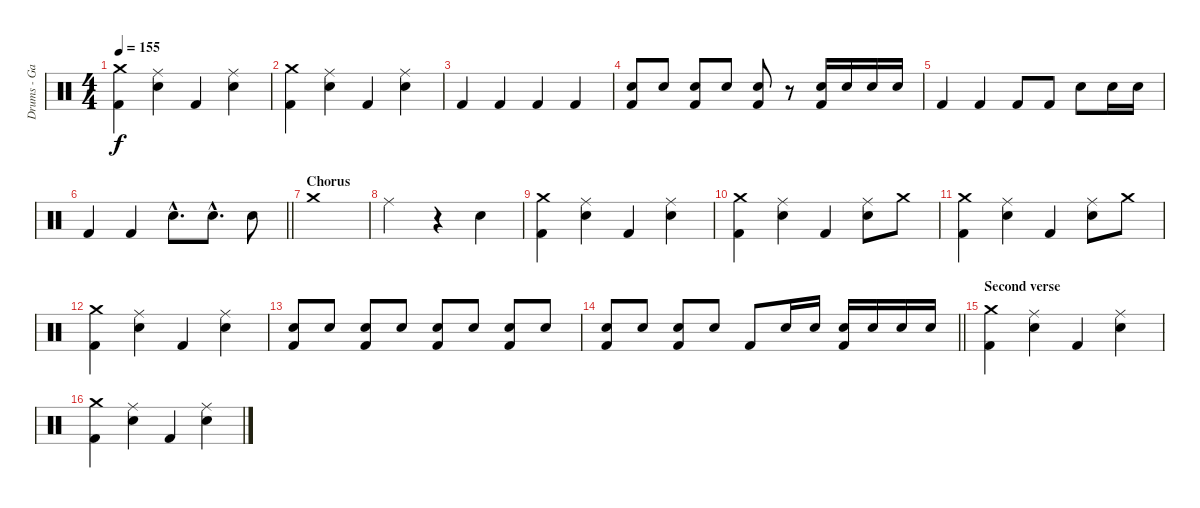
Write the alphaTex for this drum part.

\track ("Drums - Gary" "Drums - Ga") {instrument percussion}
\staff {score}
\articulation defaults
\ts (4 4)
\tempo 155
\clef neutral
\ks c
("Crash medium (hit)" "Kick (hit) 2").4{dy f} ("Snare (hit) 2" "Ride (middle)").4 "Kick (hit) 2".4 ("Snare (hit) 2" "Ride (middle)").4 |
("Crash medium (hit)" "Kick (hit) 2").4 ("Snare (hit) 2" "Ride (middle)").4 "Kick (hit) 2".4 ("Snare (hit) 2" "Ride (middle)").4 |
"Kick (hit) 2".4 "Kick (hit) 2".4 "Kick (hit) 2".4 "Kick (hit) 2".4 |
("Snare (hit) 2" "Kick (hit) 2").8 "Snare (hit) 2".8 ("Snare (hit) 2" "Kick (hit) 2").8 "Snare (hit) 2".8 ("Snare (hit) 2" "Kick (hit) 2").8 r.8 ("Snare (hit) 2" "Kick (hit) 2").16 "Snare (hit) 2".16 "Snare (hit) 2".16 "Snare (hit) 2".16 |
"Kick (hit) 2".4 "Kick (hit) 2".4 "Kick (hit) 2".8 "Kick (hit) 2".8 "Snare (hit) 2".8 "Snare (hit) 2".16 "Snare (hit) 2".16 |
\barLineRight lightlight "Kick (hit) 2".4 "Kick (hit) 2".4 "Snare (hit) 2"{hac}.8{d} "Snare (hit) 2"{hac}.8{d} "Snare (hit) 2".8
|
\section ("" "Chorus")
"Crash medium (hit)".1 |
"Ride (middle)".2 r.4 "Snare (hit) 2".4 |
("Crash medium (hit)" "Kick (hit) 2").4 ("Snare (hit) 2" "Ride (middle)").4 "Kick (hit) 2".4 ("Snare (hit) 2" "Ride (middle)").4 |
("Crash medium (hit)" "Kick (hit) 2").4 ("Snare (hit) 2" "Ride (middle)").4 "Kick (hit) 2".4 ("Snare (hit) 2" "Ride (middle)").8 "Crash medium (hit)".8 |
("Crash medium (hit)" "Kick (hit) 2").4 ("Snare (hit) 2" "Ride (middle)").4 "Kick (hit) 2".4 ("Snare (hit) 2" "Ride (middle)").8 "Crash medium (hit)".8 |
("Crash medium (hit)" "Kick (hit) 2").4 ("Snare (hit) 2" "Ride (middle)").4 "Kick (hit) 2".4 ("Snare (hit) 2" "Ride (middle)").4 |
("Snare (hit) 2" "Kick (hit) 2").8 "Snare (hit) 2".8 ("Snare (hit) 2" "Kick (hit) 2").8 "Snare (hit) 2".8 ("Snare (hit) 2" "Kick (hit) 2").8 "Snare (hit) 2".8 ("Snare (hit) 2" "Kick (hit) 2").8 "Snare (hit) 2".8 |
\barLineRight lightlight
("Snare (hit) 2" "Kick (hit) 2").8 "Snare (hit) 2".8 ("Snare (hit) 2" "Kick (hit) 2").8 "Snare (hit) 2".8 "Kick (hit) 2".8 "Snare (hit) 2".16 "Snare (hit) 2".16 ("Snare (hit) 2" "Kick (hit) 2").16 "Snare (hit) 2".16 "Snare (hit) 2".16 "Snare (hit) 2".16 |
\section ("" "Second verse")
("Crash medium (hit)" "Kick (hit) 2").4 ("Snare (hit) 2" "Ride (middle)").4 "Kick (hit) 2".4 ("Snare (hit) 2" "Ride (middle)").4 |
("Crash medium (hit)" "Kick (hit) 2").4 ("Snare (hit) 2" "Ride (middle)").4 "Kick (hit) 2".4 ("Snare (hit) 2" "Ride (middle)").4
